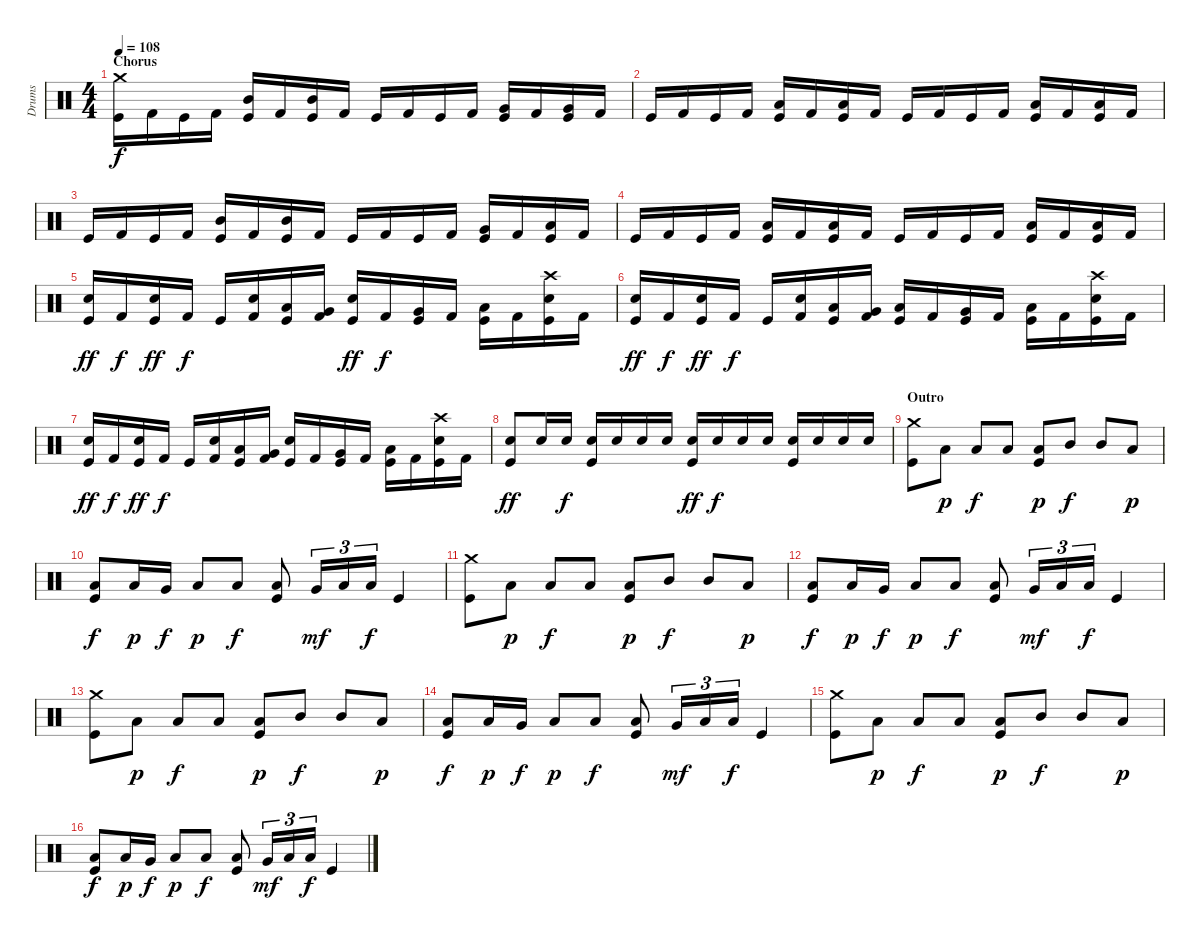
\track ("Drums" "Drums") {instrument percussion}
\staff {score}
\articulation defaults
\ts (4 4)
\section ("" "Chorus")
\tempo 108
\clef neutral
\ks c
("Crash medium (hit)" "Kick (hit)").16{dy f} "Kick (hit) 2".16 "Kick (hit)".16 "Kick (hit) 2".16 ("Mid Tom (hit)" "Kick (hit)").16 "Kick (hit) 2".16 ("Mid Tom (hit)" "Kick (hit)").16 "Kick (hit) 2".16 "Kick (hit)".16 "Kick (hit) 2".16 "Kick (hit)".16 "Kick (hit) 2".16 ("Very Low Tom (hit)" "Kick (hit)").16 "Kick (hit) 2".16 ("Very Low Tom (hit)" "Kick (hit)").16 "Kick (hit) 2".16 |
"Kick (hit)".16 "Kick (hit) 2".16 "Kick (hit)".16 "Kick (hit) 2".16 ("Low Tom (hit)" "Kick (hit)").16 "Kick (hit) 2".16 ("Low Tom (hit)" "Kick (hit)").16 "Kick (hit) 2".16 "Kick (hit)".16 "Kick (hit) 2".16 "Kick (hit)".16 "Kick (hit) 2".16 ("Low Floor Tom (hit)" "Kick (hit)").16 "Kick (hit) 2".16 ("Low Floor Tom (hit)" "Kick (hit)").16 "Kick (hit) 2".16 |
"Kick (hit)".16 "Kick (hit) 2".16 "Kick (hit)".16 "Kick (hit) 2".16 ("Mid Tom (hit)" "Kick (hit)").16 "Kick (hit) 2".16 ("Mid Tom (hit)" "Kick (hit)").16 "Kick (hit) 2".16 "Kick (hit)".16 "Kick (hit) 2".16 "Kick (hit)".16 "Kick (hit) 2".16 ("Very Low Tom (hit)" "Kick (hit)").16 "Kick (hit) 2".16 ("Low Floor Tom (hit)" "Kick (hit)").16 "Kick (hit) 2".16 |
"Kick (hit)".16 "Kick (hit) 2".16 "Kick (hit)".16 "Kick (hit) 2".16 ("Low Tom (hit)" "Kick (hit)").16 "Kick (hit) 2".16 ("Low Tom (hit)" "Kick (hit)").16 "Kick (hit) 2".16 "Kick (hit)".16 "Kick (hit) 2".16 "Kick (hit)".16 "Kick (hit) 2".16 ("Low Floor Tom (hit)" "Kick (hit)").16 "Kick (hit) 2".16 ("Low Floor Tom (hit)" "Kick (hit)").16 "Kick (hit) 2".16 |
("Electric Snare (hit)" "Kick (hit)").16{dy ff} "Kick (hit) 2".16{dy f} ("Electric Snare (hit)" "Kick (hit)").16{dy ff} "Kick (hit) 2".16{dy f} "Kick (hit)".16 ("Electric Snare (hit)" "Kick (hit) 2").16 ("Low Tom (hit)" "Kick (hit)").16 ("Very Low Tom (hit)" "Kick (hit) 2").16 ("Electric Snare (hit)" "Kick (hit)").16{dy ff} "Kick (hit) 2".16{dy f} ("Very Low Tom (hit)" "Kick (hit)").16 "Kick (hit) 2".16 ("Low Floor Tom (hit)" "Kick (hit)").16 "Kick (hit) 2".16 ("Crash high (hit)" "Electric Snare (hit)" "Kick (hit)").16 "Kick (hit) 2".16 |
("Electric Snare (hit)" "Kick (hit)").16{dy ff} "Kick (hit) 2".16{dy f} ("Electric Snare (hit)" "Kick (hit)").16{dy ff} "Kick (hit) 2".16{dy f} "Kick (hit)".16 ("Electric Snare (hit)" "Kick (hit) 2").16 ("Low Tom (hit)" "Kick (hit)").16 ("Very Low Tom (hit)" "Kick (hit) 2").16 ("Low Tom (hit)" "Kick (hit)").16 "Kick (hit) 2".16 ("Very Low Tom (hit)" "Kick (hit)").16 "Kick (hit) 2".16 ("Low Floor Tom (hit)" "Kick (hit)").16 "Kick (hit) 2".16 ("Crash high (hit)" "Electric Snare (hit)" "Kick (hit)").16 "Kick (hit) 2".16 |
("Electric Snare (hit)" "Kick (hit)").16{dy ff} "Kick (hit) 2".16{dy f} ("Electric Snare (hit)" "Kick (hit)").16{dy ff} "Kick (hit) 2".16{dy f} "Kick (hit)".16 ("Electric Snare (hit)" "Kick (hit) 2").16 ("Low Tom (hit)" "Kick (hit)").16 ("Very Low Tom (hit)" "Kick (hit) 2").16 ("Electric Snare (hit)" "Kick (hit)").16 "Kick (hit) 2".16 ("Very Low Tom (hit)" "Kick (hit)").16 "Kick (hit) 2".16 ("Low Floor Tom (hit)" "Kick (hit)").16 "Kick (hit) 2".16 ("Crash high (hit)" "Electric Snare (hit)" "Kick (hit)").16 "Kick (hit) 2".16 |
("Electric Snare (hit)" "Kick (hit)").8{dy ff} "Electric Snare (hit)".16 "Electric Snare (hit)".16{dy f} ("Electric Snare (hit)" "Kick (hit)").16 "Electric Snare (hit)".16 "Electric Snare (hit)".16 "Electric Snare (hit)".16 ("Electric Snare (hit)" "Kick (hit)").16{dy ff} "Electric Snare (hit)".16{dy f} "Electric Snare (hit)".16 "Electric Snare (hit)".16 ("Electric Snare (hit)" "Kick (hit)").16 "Electric Snare (hit)".16 "Electric Snare (hit)".16 "Electric Snare (hit)".16 |
\section ("" "Outro")
("Crash medium (hit)" "Kick (hit)").8 "Low Floor Tom (hit)".8{dy p} "Low Tom (hit)".8{dy f} "Low Tom (hit)".8 ("Low Floor Tom (hit)" "Kick (hit)").8{dy p} "Mid Tom (hit)".8{dy f} "Mid Tom (hit)".8 "Low Floor Tom (hit)".8{dy p} |
("Low Tom (hit)" "Kick (hit)").8{dy f} "Low Floor Tom (hit)".16{dy p} "Very Low Tom (hit)".16{dy f} "Low Floor Tom (hit)".8{dy p} "Low Tom (hit)".8{dy f} ("Low Floor Tom (hit)" "Kick (hit)").8 "Very Low Tom (hit)".16{tu (3 2) dy mf} "Low Tom (hit)".16{tu (3 2)} "Low Floor Tom (hit)".16{tu (3 2) dy f} "Kick (hit)".4 |
("Crash medium (hit)" "Kick (hit)").8 "Low Floor Tom (hit)".8{dy p} "Low Tom (hit)".8{dy f} "Low Tom (hit)".8 ("Low Floor Tom (hit)" "Kick (hit)").8{dy p} "Mid Tom (hit)".8{dy f} "Mid Tom (hit)".8 "Low Floor Tom (hit)".8{dy p} |
("Low Tom (hit)" "Kick (hit)").8{dy f} "Low Floor Tom (hit)".16{dy p} "Very Low Tom (hit)".16{dy f} "Low Floor Tom (hit)".8{dy p} "Low Tom (hit)".8{dy f} ("Low Floor Tom (hit)" "Kick (hit)").8 "Very Low Tom (hit)".16{tu (3 2) dy mf} "Low Tom (hit)".16{tu (3 2)} "Low Floor Tom (hit)".16{tu (3 2) dy f} "Kick (hit)".4 |
("Crash medium (hit)" "Kick (hit)").8 "Low Floor Tom (hit)".8{dy p} "Low Tom (hit)".8{dy f} "Low Tom (hit)".8 ("Low Floor Tom (hit)" "Kick (hit)").8{dy p} "Mid Tom (hit)".8{dy f} "Mid Tom (hit)".8 "Low Floor Tom (hit)".8{dy p} |
("Low Tom (hit)" "Kick (hit)").8{dy f} "Low Floor Tom (hit)".16{dy p} "Very Low Tom (hit)".16{dy f} "Low Floor Tom (hit)".8{dy p} "Low Tom (hit)".8{dy f} ("Low Floor Tom (hit)" "Kick (hit)").8 "Very Low Tom (hit)".16{tu (3 2) dy mf} "Low Tom (hit)".16{tu (3 2)} "Low Floor Tom (hit)".16{tu (3 2) dy f} "Kick (hit)".4 |
("Crash medium (hit)" "Kick (hit)").8 "Low Floor Tom (hit)".8{dy p} "Low Tom (hit)".8{dy f} "Low Tom (hit)".8 ("Low Floor Tom (hit)" "Kick (hit)").8{dy p} "Mid Tom (hit)".8{dy f} "Mid Tom (hit)".8 "Low Floor Tom (hit)".8{dy p} |
("Low Tom (hit)" "Kick (hit)").8{dy f} "Low Floor Tom (hit)".16{dy p} "Very Low Tom (hit)".16{dy f} "Low Floor Tom (hit)".8{dy p} "Low Tom (hit)".8{dy f} ("Low Floor Tom (hit)" "Kick (hit)").8 "Very Low Tom (hit)".16{tu (3 2) dy mf} "Low Tom (hit)".16{tu (3 2)} "Low Floor Tom (hit)".16{tu (3 2) dy f} "Kick (hit)".4
